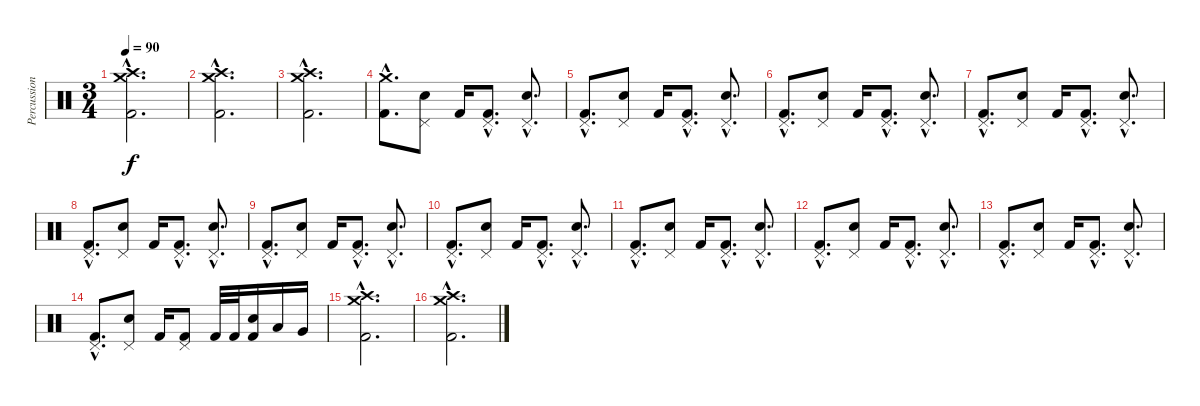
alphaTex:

\track ("Percussion" "Percussion") {instrument percussion}
\staff {score}
\articulation defaults
\ts (3 4)
\tempo 90
\clef neutral
\ks c
("Kick (hit) 2"{hac} "Crash high (hit)"{hac} "Crash medium (hit)"{hac}).2{d dy f} |
("Kick (hit) 2"{hac} "Crash high (hit)"{hac} "Crash medium (hit)"{hac}).2{d} |
("Kick (hit) 2"{hac} "Crash high (hit)"{hac} "Crash medium (hit)"{hac}).2{d} |
("Kick (hit) 2"{hac} "Crash medium (hit)"{hac}).8{d} ("Electric Snare (hit)" "Pedal Hi-Hat (hit)").8 "Kick (hit) 2".16 ("Kick (hit) 2"{hac} "Pedal Hi-Hat (hit)"{hac}).8{d} ("Electric Snare (hit)"{hac} "Pedal Hi-Hat (hit)"{hac}).8{d} |
("Kick (hit) 2"{hac} "Pedal Hi-Hat (hit)"{hac}).8{d} ("Electric Snare (hit)" "Pedal Hi-Hat (hit)").8 "Kick (hit) 2".16 ("Kick (hit) 2"{hac} "Pedal Hi-Hat (hit)"{hac}).8{d} ("Electric Snare (hit)"{hac} "Pedal Hi-Hat (hit)"{hac}).8{d} |
("Kick (hit) 2"{hac} "Pedal Hi-Hat (hit)"{hac}).8{d} ("Electric Snare (hit)" "Pedal Hi-Hat (hit)").8 "Kick (hit) 2".16 ("Kick (hit) 2"{hac} "Pedal Hi-Hat (hit)"{hac}).8{d} ("Electric Snare (hit)"{hac} "Pedal Hi-Hat (hit)"{hac}).8{d} |
("Kick (hit) 2"{hac} "Pedal Hi-Hat (hit)"{hac}).8{d} ("Electric Snare (hit)" "Pedal Hi-Hat (hit)").8 "Kick (hit) 2".16 ("Kick (hit) 2"{hac} "Pedal Hi-Hat (hit)"{hac}).8{d} ("Electric Snare (hit)"{hac} "Pedal Hi-Hat (hit)"{hac}).8{d} |
("Kick (hit) 2"{hac} "Pedal Hi-Hat (hit)"{hac}).8{d} ("Electric Snare (hit)" "Pedal Hi-Hat (hit)").8 "Kick (hit) 2".16 ("Kick (hit) 2"{hac} "Pedal Hi-Hat (hit)"{hac}).8{d} ("Electric Snare (hit)"{hac} "Pedal Hi-Hat (hit)"{hac}).8{d} |
("Kick (hit) 2"{hac} "Pedal Hi-Hat (hit)"{hac}).8{d} ("Electric Snare (hit)" "Pedal Hi-Hat (hit)").8 "Kick (hit) 2".16 ("Kick (hit) 2"{hac} "Pedal Hi-Hat (hit)"{hac}).8{d} ("Electric Snare (hit)"{hac} "Pedal Hi-Hat (hit)"{hac}).8{d} |
("Kick (hit) 2"{hac} "Pedal Hi-Hat (hit)"{hac}).8{d} ("Electric Snare (hit)" "Pedal Hi-Hat (hit)").8 "Kick (hit) 2".16 ("Kick (hit) 2"{hac} "Pedal Hi-Hat (hit)"{hac}).8{d} ("Electric Snare (hit)"{hac} "Pedal Hi-Hat (hit)"{hac}).8{d} |
("Kick (hit) 2"{hac} "Pedal Hi-Hat (hit)"{hac}).8{d} ("Electric Snare (hit)" "Pedal Hi-Hat (hit)").8 "Kick (hit) 2".16 ("Kick (hit) 2"{hac} "Pedal Hi-Hat (hit)"{hac}).8{d} ("Electric Snare (hit)"{hac} "Pedal Hi-Hat (hit)"{hac}).8{d} |
("Kick (hit) 2"{hac} "Pedal Hi-Hat (hit)"{hac}).8{d} ("Electric Snare (hit)" "Pedal Hi-Hat (hit)").8 "Kick (hit) 2".16 ("Kick (hit) 2"{hac} "Pedal Hi-Hat (hit)"{hac}).8{d} ("Electric Snare (hit)"{hac} "Pedal Hi-Hat (hit)"{hac}).8{d} |
("Kick (hit) 2"{hac} "Pedal Hi-Hat (hit)"{hac}).8{d} ("Electric Snare (hit)" "Pedal Hi-Hat (hit)").8 "Kick (hit) 2".16 ("Kick (hit) 2"{hac} "Pedal Hi-Hat (hit)"{hac}).8{d} ("Electric Snare (hit)"{hac} "Pedal Hi-Hat (hit)"{hac}).8{d} |
("Kick (hit) 2"{hac} "Pedal Hi-Hat (hit)"{hac}).8{d} ("Electric Snare (hit)" "Pedal Hi-Hat (hit)").8 "Kick (hit) 2".16 ("Kick (hit) 2" "Pedal Hi-Hat (hit)").8 "Kick (hit) 2".32 "Kick (hit) 2".32 ("Kick (hit) 2" "Electric Snare (hit)").16 "Low Tom (hit)".16 "Very Low Tom (hit)".16 |
("Kick (hit) 2"{hac} "Crash high (hit)"{hac} "Crash medium (hit)"{hac}).2{d} |
("Kick (hit) 2"{hac} "Crash high (hit)"{hac} "Crash medium (hit)"{hac}).2{d}
